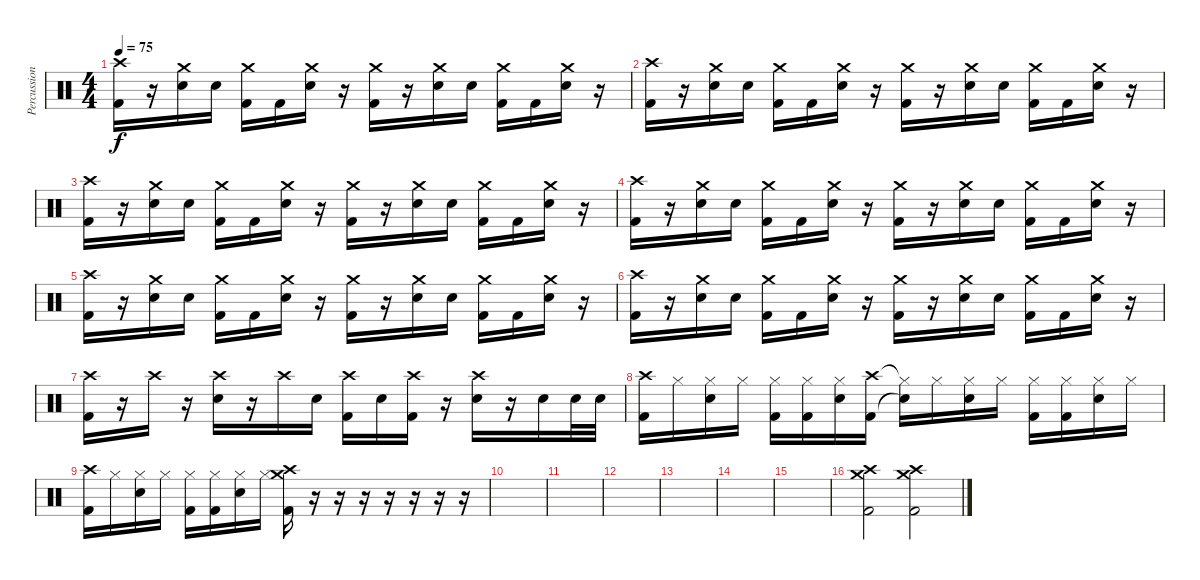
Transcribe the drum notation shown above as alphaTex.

\track ("Percussioni" "Percussion") {instrument percussion}
\staff {score}
\articulation defaults
\ts (4 4)
\tempo 75
\clef neutral
\ks c
("Crash high (hit)" "Kick (hit) 2").16{dy f} r.16 ("Crash medium (hit)" "Electric Snare (hit)").16 "Electric Snare (hit)".16 ("Crash medium (hit)" "Kick (hit) 2").16 "Kick (hit) 2".16 ("Crash medium (hit)" "Electric Snare (hit)").16 r.16 ("Crash medium (hit)" "Kick (hit) 2").16 r.16 ("Crash medium (hit)" "Electric Snare (hit)").16 "Electric Snare (hit)".16 ("Crash medium (hit)" "Kick (hit) 2").16 "Kick (hit) 2".16 ("Crash medium (hit)" "Electric Snare (hit)").16 r.16 |
("Crash high (hit)" "Kick (hit) 2").16 r.16 ("Crash medium (hit)" "Electric Snare (hit)").16 "Electric Snare (hit)".16 ("Crash medium (hit)" "Kick (hit) 2").16 "Kick (hit) 2".16 ("Crash medium (hit)" "Electric Snare (hit)").16 r.16 ("Crash medium (hit)" "Kick (hit) 2").16 r.16 ("Crash medium (hit)" "Electric Snare (hit)").16 "Electric Snare (hit)".16 ("Crash medium (hit)" "Kick (hit) 2").16 "Kick (hit) 2".16 ("Crash medium (hit)" "Electric Snare (hit)").16 r.16 |
("Crash high (hit)" "Kick (hit) 2").16 r.16 ("Crash medium (hit)" "Electric Snare (hit)").16 "Electric Snare (hit)".16 ("Crash medium (hit)" "Kick (hit) 2").16 "Kick (hit) 2".16 ("Crash medium (hit)" "Electric Snare (hit)").16 r.16 ("Crash medium (hit)" "Kick (hit) 2").16 r.16 ("Crash medium (hit)" "Electric Snare (hit)").16 "Electric Snare (hit)".16 ("Crash medium (hit)" "Kick (hit) 2").16 "Kick (hit) 2".16 ("Crash medium (hit)" "Electric Snare (hit)").16 r.16 |
("Crash high (hit)" "Kick (hit) 2").16 r.16 ("Crash medium (hit)" "Electric Snare (hit)").16 "Electric Snare (hit)".16 ("Crash medium (hit)" "Kick (hit) 2").16 "Kick (hit) 2".16 ("Crash medium (hit)" "Electric Snare (hit)").16 r.16 ("Crash medium (hit)" "Kick (hit) 2").16 r.16 ("Crash medium (hit)" "Electric Snare (hit)").16 "Electric Snare (hit)".16 ("Crash medium (hit)" "Kick (hit) 2").16 "Kick (hit) 2".16 ("Crash medium (hit)" "Electric Snare (hit)").16 r.16 |
("Crash high (hit)" "Kick (hit) 2").16 r.16 ("Crash medium (hit)" "Electric Snare (hit)").16 "Electric Snare (hit)".16 ("Crash medium (hit)" "Kick (hit) 2").16 "Kick (hit) 2".16 ("Crash medium (hit)" "Electric Snare (hit)").16 r.16 ("Crash medium (hit)" "Kick (hit) 2").16 r.16 ("Crash medium (hit)" "Electric Snare (hit)").16 "Electric Snare (hit)".16 ("Crash medium (hit)" "Kick (hit) 2").16 "Kick (hit) 2".16 ("Crash medium (hit)" "Electric Snare (hit)").16 r.16 |
("Crash high (hit)" "Kick (hit) 2").16 r.16 ("Crash medium (hit)" "Electric Snare (hit)").16 "Electric Snare (hit)".16 ("Crash medium (hit)" "Kick (hit) 2").16 "Kick (hit) 2".16 ("Crash medium (hit)" "Electric Snare (hit)").16 r.16 ("Crash medium (hit)" "Kick (hit) 2").16 r.16 ("Crash medium (hit)" "Electric Snare (hit)").16 "Electric Snare (hit)".16 ("Crash medium (hit)" "Kick (hit) 2").16 "Kick (hit) 2".16 ("Crash medium (hit)" "Electric Snare (hit)").16 r.16 |
("Crash high (hit)" "Kick (hit) 2").16 r.16 "Crash high (hit)".16 r.16 ("Crash high (hit)" "Electric Snare (hit)").16 r.16 "Crash high (hit)".16 "Electric Snare (hit)".16 ("Crash high (hit)" "Kick (hit) 2").16 "Electric Snare (hit)".16 ("Crash high (hit)" "Kick (hit) 2").16 r.16 ("Crash high (hit)" "Electric Snare (hit)").16 r.16 "Electric Snare (hit)".16 "Electric Snare (hit)".32 "Electric Snare (hit)".32 |
("Crash high (hit)" "Kick (hit) 2").16 "Hi-Hat (closed)".16 ("Hi-Hat (closed)" "Electric Snare (hit)").16 "Hi-Hat (closed)".16 ("Hi-Hat (closed)" "Kick (hit) 2").16 ("Hi-Hat (closed)" "Kick (hit) 2").16 ("Hi-Hat (closed)" "Electric Snare (hit)").16 ("Crash high (hit)" "Kick (hit) 2").16 ("Hi-Hat (closed)"{t} "Snare (hit)"{t}).16 "Hi-Hat (closed)".16 ("Hi-Hat (closed)" "Electric Snare (hit)").16 "Hi-Hat (closed)".16 ("Hi-Hat (closed)" "Kick (hit) 2").16 ("Hi-Hat (closed)" "Kick (hit) 2").16 ("Hi-Hat (closed)" "Electric Snare (hit)").16 "Hi-Hat (closed)".16 |
("Crash high (hit)" "Kick (hit) 2").16 "Hi-Hat (closed)".16 ("Hi-Hat (closed)" "Electric Snare (hit)").16 "Hi-Hat (closed)".16 ("Hi-Hat (closed)" "Kick (hit) 2").16 ("Hi-Hat (closed)" "Kick (hit) 2").16 ("Hi-Hat (closed)" "Electric Snare (hit)").16 "Hi-Hat (closed)".16 ("Crash medium (hit)" "Crash high (hit)" "Kick (hit) 2").16 r.16 r.16 r.16 r.16 r.16 r.16 r.16 |
|
|
|
|
|
|
("Kick (hit) 2" "Crash high (hit)" "Crash medium (hit)").2 ("Kick (hit) 2" "Crash high (hit)" "Crash medium (hit)").2
